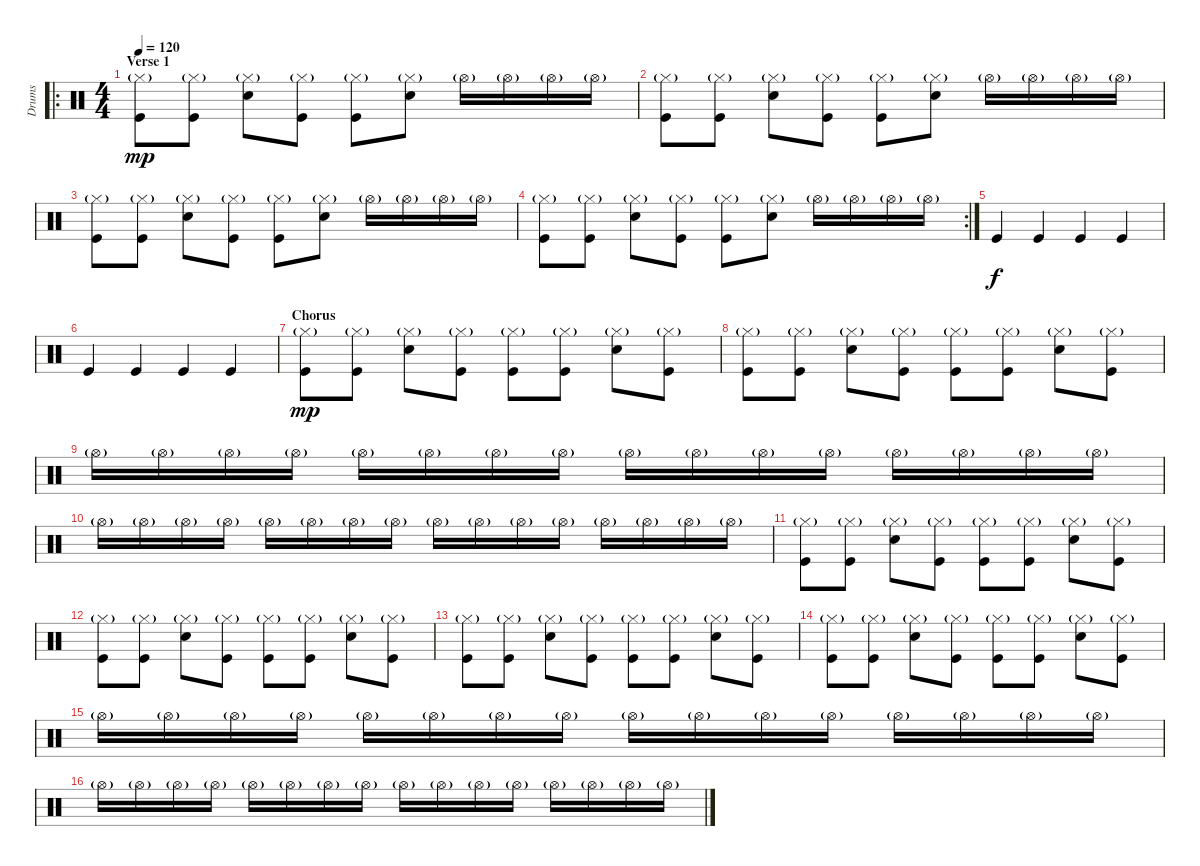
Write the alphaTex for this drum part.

\track ("Drums" "Drums") {instrument percussion}
\staff {score}
\articulation defaults
\ro
\ts (4 4)
\section ("" "Verse 1")
\tempo 120
\clef neutral
\ks c
("Hi-Hat (closed)"{g} "Kick (hit)").8{dy mp} ("Hi-Hat (closed)"{g} "Kick (hit)").8 ("Hi-Hat (closed)"{g} "Electric Snare (hit)").8 ("Hi-Hat (closed)"{g} "Kick (hit)").8 ("Hi-Hat (closed)"{g} "Kick (hit)").8 ("Hi-Hat (closed)"{g} "Electric Snare (hit)").8 "Hi-Hat (open)"{g}.16 "Hi-Hat (open)"{g}.16 "Hi-Hat (open)"{g}.16 "Hi-Hat (open)"{g}.16 |
("Hi-Hat (closed)"{g} "Kick (hit)").8 ("Hi-Hat (closed)"{g} "Kick (hit)").8 ("Hi-Hat (closed)"{g} "Electric Snare (hit)").8 ("Hi-Hat (closed)"{g} "Kick (hit)").8 ("Hi-Hat (closed)"{g} "Kick (hit)").8 ("Hi-Hat (closed)"{g} "Electric Snare (hit)").8 "Hi-Hat (open)"{g}.16 "Hi-Hat (open)"{g}.16 "Hi-Hat (open)"{g}.16 "Hi-Hat (open)"{g}.16 |
("Hi-Hat (closed)"{g} "Kick (hit)").8 ("Hi-Hat (closed)"{g} "Kick (hit)").8 ("Hi-Hat (closed)"{g} "Electric Snare (hit)").8 ("Hi-Hat (closed)"{g} "Kick (hit)").8 ("Hi-Hat (closed)"{g} "Kick (hit)").8 ("Hi-Hat (closed)"{g} "Electric Snare (hit)").8 "Hi-Hat (open)"{g}.16 "Hi-Hat (open)"{g}.16 "Hi-Hat (open)"{g}.16 "Hi-Hat (open)"{g}.16 |
\rc 2
("Hi-Hat (closed)"{g} "Kick (hit)").8 ("Hi-Hat (closed)"{g} "Kick (hit)").8 ("Hi-Hat (closed)"{g} "Electric Snare (hit)").8 ("Hi-Hat (closed)"{g} "Kick (hit)").8 ("Hi-Hat (closed)"{g} "Kick (hit)").8 ("Hi-Hat (closed)"{g} "Electric Snare (hit)").8 "Hi-Hat (open)"{g}.16 "Hi-Hat (open)"{g}.16 "Hi-Hat (open)"{g}.16 "Hi-Hat (open)"{g}.16 |
"Kick (hit)".4{dy f} "Kick (hit)".4 "Kick (hit)".4 "Kick (hit)".4 |
"Kick (hit)".4 "Kick (hit)".4 "Kick (hit)".4 "Kick (hit)".4 |
\section ("" "Chorus")
("Hi-Hat (closed)"{g} "Kick (hit)").8{dy mp} ("Hi-Hat (closed)"{g} "Kick (hit)").8 ("Hi-Hat (closed)"{g} "Electric Snare (hit)").8 ("Hi-Hat (closed)"{g} "Kick (hit)").8 ("Hi-Hat (closed)"{g} "Kick (hit)").8 ("Hi-Hat (closed)"{g} "Kick (hit)").8 ("Hi-Hat (closed)"{g} "Electric Snare (hit)").8 ("Hi-Hat (closed)"{g} "Kick (hit)").8 |
("Hi-Hat (closed)"{g} "Kick (hit)").8 ("Hi-Hat (closed)"{g} "Kick (hit)").8 ("Hi-Hat (closed)"{g} "Electric Snare (hit)").8 ("Hi-Hat (closed)"{g} "Kick (hit)").8 ("Hi-Hat (closed)"{g} "Kick (hit)").8 ("Hi-Hat (closed)"{g} "Kick (hit)").8 ("Hi-Hat (closed)"{g} "Electric Snare (hit)").8 ("Hi-Hat (closed)"{g} "Kick (hit)").8 |
"Hi-Hat (open)"{g}.16 "Hi-Hat (open)"{g}.16 "Hi-Hat (open)"{g}.16 "Hi-Hat (open)"{g}.16 "Hi-Hat (open)"{g}.16 "Hi-Hat (open)"{g}.16 "Hi-Hat (open)"{g}.16 "Hi-Hat (open)"{g}.16 "Hi-Hat (open)"{g}.16 "Hi-Hat (open)"{g}.16 "Hi-Hat (open)"{g}.16 "Hi-Hat (open)"{g}.16 "Hi-Hat (open)"{g}.16 "Hi-Hat (open)"{g}.16 "Hi-Hat (open)"{g}.16 "Hi-Hat (open)"{g}.16 |
"Hi-Hat (open)"{g}.16 "Hi-Hat (open)"{g}.16 "Hi-Hat (open)"{g}.16 "Hi-Hat (open)"{g}.16 "Hi-Hat (open)"{g}.16 "Hi-Hat (open)"{g}.16 "Hi-Hat (open)"{g}.16 "Hi-Hat (open)"{g}.16 "Hi-Hat (open)"{g}.16 "Hi-Hat (open)"{g}.16 "Hi-Hat (open)"{g}.16 "Hi-Hat (open)"{g}.16 "Hi-Hat (open)"{g}.16 "Hi-Hat (open)"{g}.16 "Hi-Hat (open)"{g}.16 "Hi-Hat (open)"{g}.16 |
("Hi-Hat (closed)"{g} "Kick (hit)").8 ("Hi-Hat (closed)"{g} "Kick (hit)").8 ("Hi-Hat (closed)"{g} "Electric Snare (hit)").8 ("Hi-Hat (closed)"{g} "Kick (hit)").8 ("Hi-Hat (closed)"{g} "Kick (hit)").8 ("Hi-Hat (closed)"{g} "Kick (hit)").8 ("Hi-Hat (closed)"{g} "Electric Snare (hit)").8 ("Hi-Hat (closed)"{g} "Kick (hit)").8 |
("Hi-Hat (closed)"{g} "Kick (hit)").8 ("Hi-Hat (closed)"{g} "Kick (hit)").8 ("Hi-Hat (closed)"{g} "Electric Snare (hit)").8 ("Hi-Hat (closed)"{g} "Kick (hit)").8 ("Hi-Hat (closed)"{g} "Kick (hit)").8 ("Hi-Hat (closed)"{g} "Kick (hit)").8 ("Hi-Hat (closed)"{g} "Electric Snare (hit)").8 ("Hi-Hat (closed)"{g} "Kick (hit)").8 |
("Hi-Hat (closed)"{g} "Kick (hit)").8 ("Hi-Hat (closed)"{g} "Kick (hit)").8 ("Hi-Hat (closed)"{g} "Electric Snare (hit)").8 ("Hi-Hat (closed)"{g} "Kick (hit)").8 ("Hi-Hat (closed)"{g} "Kick (hit)").8 ("Hi-Hat (closed)"{g} "Kick (hit)").8 ("Hi-Hat (closed)"{g} "Electric Snare (hit)").8 ("Hi-Hat (closed)"{g} "Kick (hit)").8 |
("Hi-Hat (closed)"{g} "Kick (hit)").8 ("Hi-Hat (closed)"{g} "Kick (hit)").8 ("Hi-Hat (closed)"{g} "Electric Snare (hit)").8 ("Hi-Hat (closed)"{g} "Kick (hit)").8 ("Hi-Hat (closed)"{g} "Kick (hit)").8 ("Hi-Hat (closed)"{g} "Kick (hit)").8 ("Hi-Hat (closed)"{g} "Electric Snare (hit)").8 ("Hi-Hat (closed)"{g} "Kick (hit)").8 |
"Hi-Hat (open)"{g}.16 "Hi-Hat (open)"{g}.16 "Hi-Hat (open)"{g}.16 "Hi-Hat (open)"{g}.16 "Hi-Hat (open)"{g}.16 "Hi-Hat (open)"{g}.16 "Hi-Hat (open)"{g}.16 "Hi-Hat (open)"{g}.16 "Hi-Hat (open)"{g}.16 "Hi-Hat (open)"{g}.16 "Hi-Hat (open)"{g}.16 "Hi-Hat (open)"{g}.16 "Hi-Hat (open)"{g}.16 "Hi-Hat (open)"{g}.16 "Hi-Hat (open)"{g}.16 "Hi-Hat (open)"{g}.16 |
"Hi-Hat (open)"{g}.16 "Hi-Hat (open)"{g}.16 "Hi-Hat (open)"{g}.16 "Hi-Hat (open)"{g}.16 "Hi-Hat (open)"{g}.16 "Hi-Hat (open)"{g}.16 "Hi-Hat (open)"{g}.16 "Hi-Hat (open)"{g}.16 "Hi-Hat (open)"{g}.16 "Hi-Hat (open)"{g}.16 "Hi-Hat (open)"{g}.16 "Hi-Hat (open)"{g}.16 "Hi-Hat (open)"{g}.16 "Hi-Hat (open)"{g}.16 "Hi-Hat (open)"{g}.16 "Hi-Hat (open)"{g}.16
